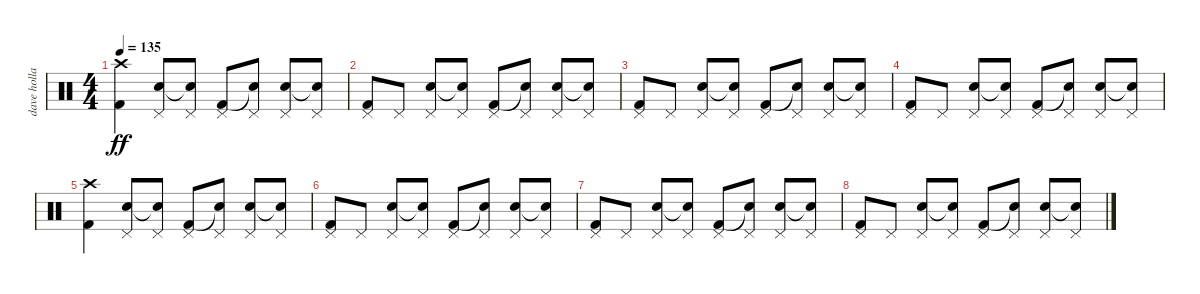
\track ("dave holland" "dave holla") {instrument percussion}
\staff {score}
\articulation defaults
\ts (4 4)
\tempo 135
\clef neutral
\ks c
("Crash high (hit)" "Kick (hit) 2").4{dy ff} ("Pedal Hi-Hat (hit)" "Electric Snare (hit)").8 ("Pedal Hi-Hat (hit)" "Electric Snare (hit)"{t}).8 ("Pedal Hi-Hat (hit)" "Kick (hit) 2").8 ("Pedal Hi-Hat (hit)" "Snare (hit)"{t}).8 ("Pedal Hi-Hat (hit)" "Electric Snare (hit)").8 ("Pedal Hi-Hat (hit)" "Snare (hit)"{t}).8 |
("Pedal Hi-Hat (hit)" "Kick (hit) 2").8 "Pedal Hi-Hat (hit)".8 ("Pedal Hi-Hat (hit)" "Electric Snare (hit)").8 ("Pedal Hi-Hat (hit)" "Electric Snare (hit)"{t}).8 ("Pedal Hi-Hat (hit)" "Kick (hit) 2").8 ("Pedal Hi-Hat (hit)" "Snare (hit)"{t}).8 ("Pedal Hi-Hat (hit)" "Electric Snare (hit)").8 ("Pedal Hi-Hat (hit)" "Snare (hit)"{t}).8 |
("Pedal Hi-Hat (hit)" "Kick (hit) 2").8 "Pedal Hi-Hat (hit)".8 ("Pedal Hi-Hat (hit)" "Electric Snare (hit)").8 ("Pedal Hi-Hat (hit)" "Electric Snare (hit)"{t}).8 ("Pedal Hi-Hat (hit)" "Kick (hit) 2").8 ("Pedal Hi-Hat (hit)" "Snare (hit)"{t}).8 ("Pedal Hi-Hat (hit)" "Electric Snare (hit)").8 ("Pedal Hi-Hat (hit)" "Snare (hit)"{t}).8 |
("Pedal Hi-Hat (hit)" "Kick (hit) 2").8 "Pedal Hi-Hat (hit)".8 ("Pedal Hi-Hat (hit)" "Electric Snare (hit)").8 ("Pedal Hi-Hat (hit)" "Electric Snare (hit)"{t}).8 ("Pedal Hi-Hat (hit)" "Kick (hit) 2").8 ("Pedal Hi-Hat (hit)" "Snare (hit)"{t}).8 ("Pedal Hi-Hat (hit)" "Electric Snare (hit)").8 ("Pedal Hi-Hat (hit)" "Snare (hit)"{t}).8 |
("Crash high (hit)" "Kick (hit) 2").4 ("Pedal Hi-Hat (hit)" "Electric Snare (hit)").8 ("Pedal Hi-Hat (hit)" "Electric Snare (hit)"{t}).8 ("Pedal Hi-Hat (hit)" "Kick (hit) 2").8 ("Pedal Hi-Hat (hit)" "Snare (hit)"{t}).8 ("Pedal Hi-Hat (hit)" "Electric Snare (hit)").8 ("Pedal Hi-Hat (hit)" "Snare (hit)"{t}).8 |
("Pedal Hi-Hat (hit)" "Kick (hit) 2").8 "Pedal Hi-Hat (hit)".8 ("Pedal Hi-Hat (hit)" "Electric Snare (hit)").8 ("Pedal Hi-Hat (hit)" "Electric Snare (hit)"{t}).8 ("Pedal Hi-Hat (hit)" "Kick (hit) 2").8 ("Pedal Hi-Hat (hit)" "Snare (hit)"{t}).8 ("Pedal Hi-Hat (hit)" "Electric Snare (hit)").8 ("Pedal Hi-Hat (hit)" "Snare (hit)"{t}).8 |
("Pedal Hi-Hat (hit)" "Kick (hit) 2").8 "Pedal Hi-Hat (hit)".8 ("Pedal Hi-Hat (hit)" "Electric Snare (hit)").8 ("Pedal Hi-Hat (hit)" "Electric Snare (hit)"{t}).8 ("Pedal Hi-Hat (hit)" "Kick (hit) 2").8 ("Pedal Hi-Hat (hit)" "Snare (hit)"{t}).8 ("Pedal Hi-Hat (hit)" "Electric Snare (hit)").8 ("Pedal Hi-Hat (hit)" "Snare (hit)"{t}).8 |
("Pedal Hi-Hat (hit)" "Kick (hit) 2").8 "Pedal Hi-Hat (hit)".8 ("Pedal Hi-Hat (hit)" "Electric Snare (hit)").8 ("Pedal Hi-Hat (hit)" "Electric Snare (hit)"{t}).8 ("Pedal Hi-Hat (hit)" "Kick (hit) 2").8 ("Pedal Hi-Hat (hit)" "Snare (hit)"{t}).8 ("Pedal Hi-Hat (hit)" "Electric Snare (hit)").8 ("Pedal Hi-Hat (hit)" "Snare (hit)"{t}).8
